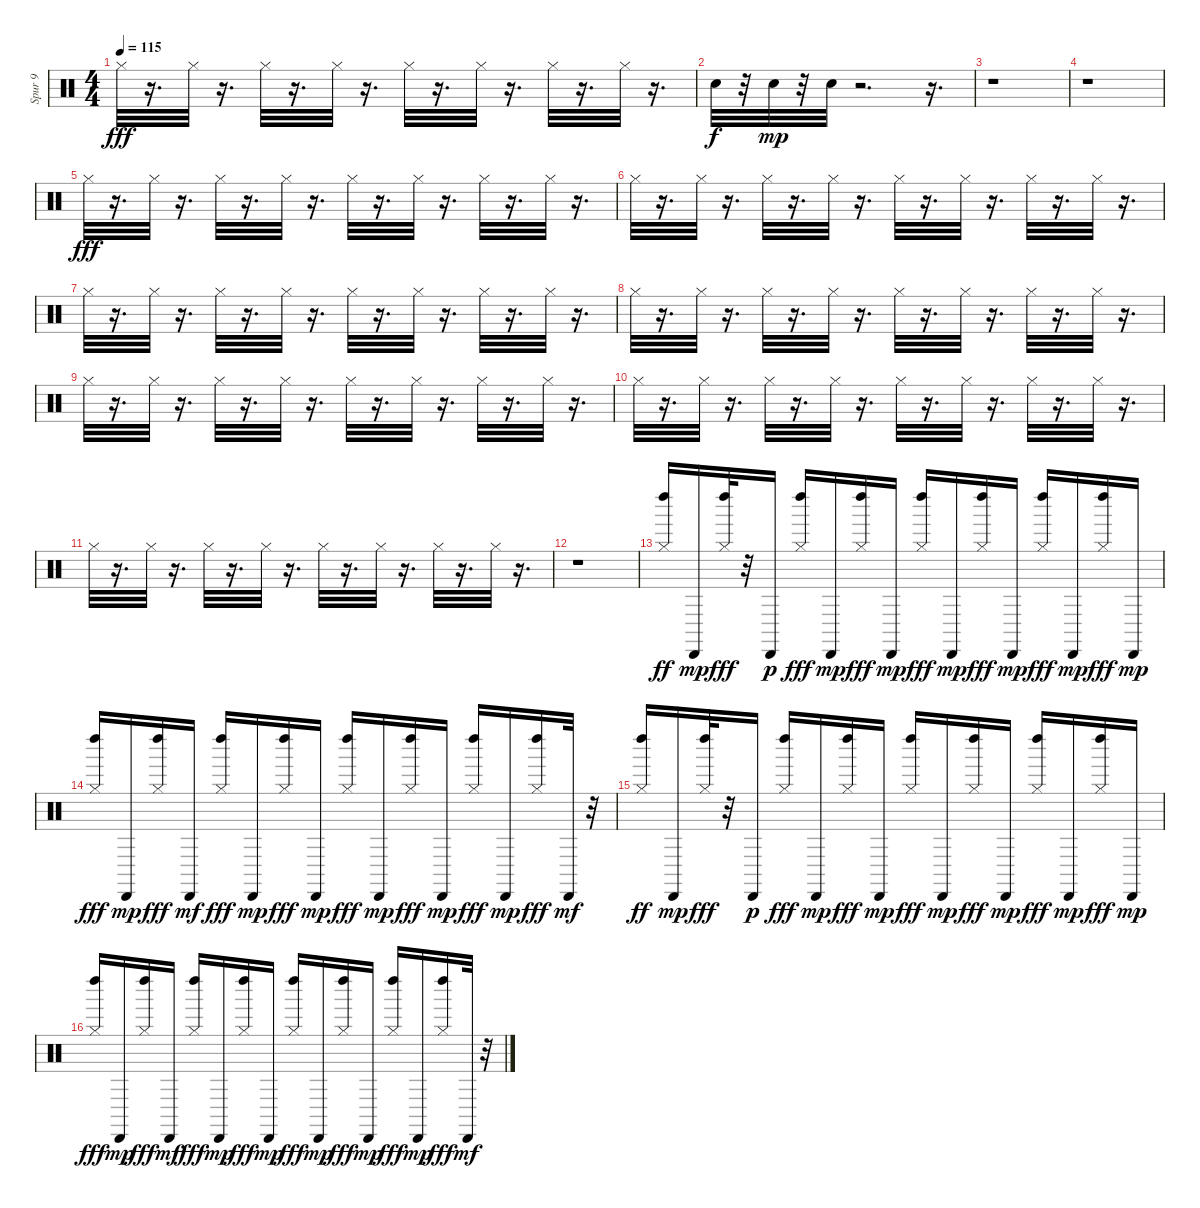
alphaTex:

\track ("Spur 9" "Spur 9") {instrument percussion}
\staff {score}
\articulation defaults
\ts (4 4)
\tempo 115
\clef neutral
\ks c "Hi-Hat (closed)".32{dy fff}
r.16{d} "Hi-Hat (closed)".32 r.16{d} "Hi-Hat (closed)".32 r.16{d} "Hi-Hat (closed)".32 r.16{d} "Hi-Hat (closed)".32 r.16{d} "Hi-Hat (closed)".32 r.16{d} "Hi-Hat (closed)".32 r.16{d} "Hi-Hat (closed)".32 r.16{d} |
"Electric Snare (hit)".32{dy f volume 14} r.32 "Electric Snare (hit)".32{dy mp} r.32 "Electric Snare (hit)".32 r.2{d} r.16{d} |
r.1 |
r.1 |
"Hi-Hat (closed)".32{dy fff volume 15} r.16{d} "Hi-Hat (closed)".32 r.16{d} "Hi-Hat (closed)".32 r.16{d} "Hi-Hat (closed)".32 r.16{d} "Hi-Hat (closed)".32 r.16{d} "Hi-Hat (closed)".32 r.16{d} "Hi-Hat (closed)".32 r.16{d} "Hi-Hat (closed)".32 r.16{d} |
"Hi-Hat (closed)".32 r.16{d} "Hi-Hat (closed)".32 r.16{d} "Hi-Hat (closed)".32 r.16{d} "Hi-Hat (closed)".32 r.16{d} "Hi-Hat (closed)".32 r.16{d} "Hi-Hat (closed)".32 r.16{d} "Hi-Hat (closed)".32 r.16{d} "Hi-Hat (closed)".32 r.16{d} |
"Hi-Hat (closed)".32 r.16{d} "Hi-Hat (closed)".32 r.16{d} "Hi-Hat (closed)".32 r.16{d} "Hi-Hat (closed)".32 r.16{d} "Hi-Hat (closed)".32 r.16{d} "Hi-Hat (closed)".32 r.16{d} "Hi-Hat (closed)".32 r.16{d} "Hi-Hat (closed)".32 r.16{d} |
"Hi-Hat (closed)".32 r.16{d} "Hi-Hat (closed)".32 r.16{d} "Hi-Hat (closed)".32 r.16{d} "Hi-Hat (closed)".32 r.16{d} "Hi-Hat (closed)".32 r.16{d} "Hi-Hat (closed)".32 r.16{d} "Hi-Hat (closed)".32 r.16{d} "Hi-Hat (closed)".32 r.16{d} |
"Hi-Hat (closed)".32 r.16{d} "Hi-Hat (closed)".32 r.16{d} "Hi-Hat (closed)".32 r.16{d} "Hi-Hat (closed)".32 r.16{d} "Hi-Hat (closed)".32 r.16{d} "Hi-Hat (closed)".32 r.16{d} "Hi-Hat (closed)".32 r.16{d} "Hi-Hat (closed)".32 r.16{d} |
"Hi-Hat (closed)".32 r.16{d} "Hi-Hat (closed)".32 r.16{d} "Hi-Hat (closed)".32 r.16{d} "Hi-Hat (closed)".32 r.16{d} "Hi-Hat (closed)".32 r.16{d} "Hi-Hat (closed)".32 r.16{d} "Hi-Hat (closed)".32 r.16{d} "Hi-Hat (closed)".32 r.16{d} |
"Hi-Hat (closed)".32 r.16{d} "Hi-Hat (closed)".32 r.16{d} "Hi-Hat (closed)".32 r.16{d} "Hi-Hat (closed)".32 r.16{d} "Hi-Hat (closed)".32 r.16{d} "Hi-Hat (closed)".32 r.16{d} "Hi-Hat (closed)".32 r.16{d} "Hi-Hat (closed)".32 r.16{d} |
r.1 |
("Hi-Hat (closed)" "Left Maraca (hit)").16{dy ff} "Cabasa (hit)".16{dy mp} ("Left Maraca (hit)" "Hi-Hat (closed)").32{dy fff} r.32 "Cabasa (hit)".16{dy p} ("Left Maraca (hit)" "Hi-Hat (closed)").16{dy fff} "Cabasa (hit)".16{dy mp} ("Left Maraca (hit)" "Hi-Hat (closed)").16{dy fff} "Cabasa (hit)".16{dy mp} ("Left Maraca (hit)" "Hi-Hat (closed)").16{dy fff} "Cabasa (hit)".16{dy mp} ("Left Maraca (hit)" "Hi-Hat (closed)").16{dy fff} "Cabasa (hit)".16{dy mp} ("Left Maraca (hit)" "Hi-Hat (closed)").16{dy fff} "Cabasa (hit)".16{dy mp} ("Left Maraca (hit)" "Hi-Hat (closed)").16{dy fff} "Cabasa (hit)".16{dy mp} |
("Left Maraca (hit)" "Hi-Hat (closed)").16{dy fff} "Cabasa (hit)".16{dy mp} ("Hi-Hat (closed)" "Left Maraca (hit)").16{dy fff} "Cabasa (hit)".16{dy mf} ("Hi-Hat (closed)" "Left Maraca (hit)").16{dy fff} "Cabasa (hit)".16{dy mp} ("Hi-Hat (closed)" "Left Maraca (hit)").16{dy fff} "Cabasa (hit)".16{dy mp} ("Left Maraca (hit)" "Hi-Hat (closed)").16{dy fff} "Cabasa (hit)".16{dy mp} ("Left Maraca (hit)" "Hi-Hat (closed)").16{dy fff} "Cabasa (hit)".16{dy mp} ("Left Maraca (hit)" "Hi-Hat (closed)").16{dy fff} "Cabasa (hit)".16{dy mp} ("Left Maraca (hit)" "Hi-Hat (closed)").16{dy fff} "Cabasa (hit)".32{dy mf} r.32 |
("Hi-Hat (closed)" "Left Maraca (hit)").16{dy ff} "Cabasa (hit)".16{dy mp} ("Left Maraca (hit)" "Hi-Hat (closed)").32{dy fff} r.32 "Cabasa (hit)".16{dy p} ("Left Maraca (hit)" "Hi-Hat (closed)").16{dy fff} "Cabasa (hit)".16{dy mp} ("Left Maraca (hit)" "Hi-Hat (closed)").16{dy fff} "Cabasa (hit)".16{dy mp} ("Left Maraca (hit)" "Hi-Hat (closed)").16{dy fff} "Cabasa (hit)".16{dy mp} ("Left Maraca (hit)" "Hi-Hat (closed)").16{dy fff} "Cabasa (hit)".16{dy mp} ("Left Maraca (hit)" "Hi-Hat (closed)").16{dy fff} "Cabasa (hit)".16{dy mp} ("Left Maraca (hit)" "Hi-Hat (closed)").16{dy fff} "Cabasa (hit)".16{dy mp} |
("Left Maraca (hit)" "Hi-Hat (closed)").16{dy fff} "Cabasa (hit)".16{dy mp} ("Hi-Hat (closed)" "Left Maraca (hit)").16{dy fff} "Cabasa (hit)".16{dy mf} ("Hi-Hat (closed)" "Left Maraca (hit)").16{dy fff} "Cabasa (hit)".16{dy mp} ("Hi-Hat (closed)" "Left Maraca (hit)").16{dy fff} "Cabasa (hit)".16{dy mp} ("Left Maraca (hit)" "Hi-Hat (closed)").16{dy fff} "Cabasa (hit)".16{dy mp} ("Left Maraca (hit)" "Hi-Hat (closed)").16{dy fff} "Cabasa (hit)".16{dy mp} ("Left Maraca (hit)" "Hi-Hat (closed)").16{dy fff} "Cabasa (hit)".16{dy mp} ("Left Maraca (hit)" "Hi-Hat (closed)").16{dy fff} "Cabasa (hit)".32{dy mf} r.32
